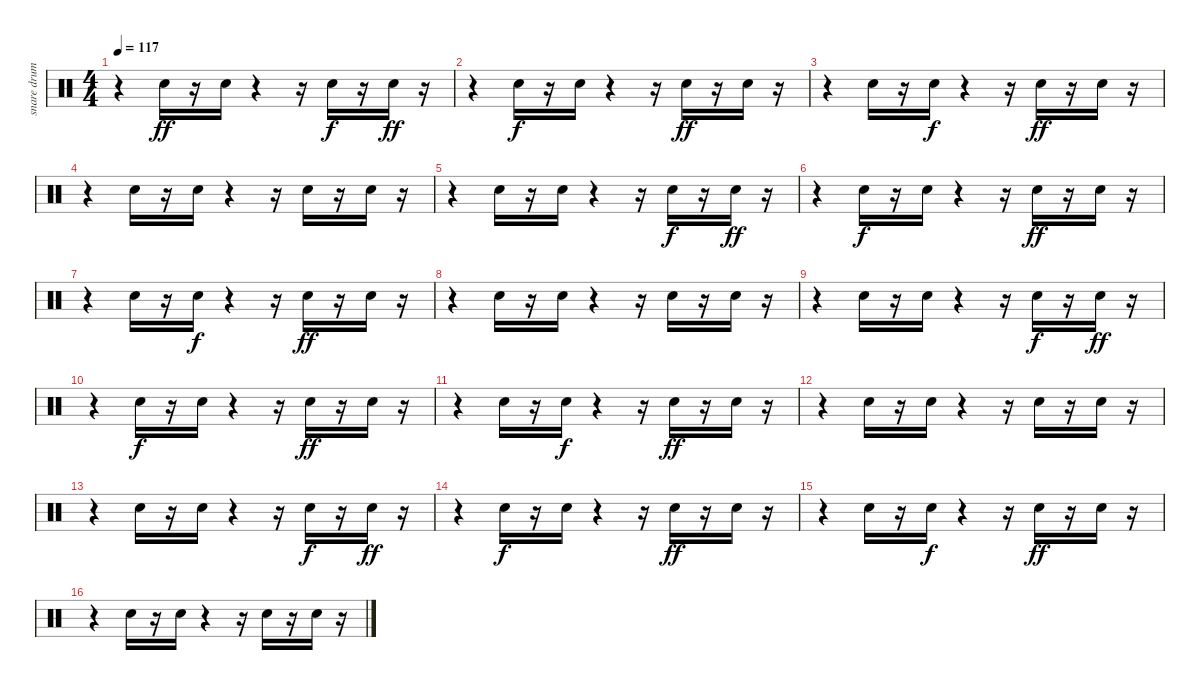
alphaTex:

\track ("snare drum" "snare drum") {instrument percussion}
\staff {score}
\articulation defaults
\ts (4 4)
\tempo 117
\clef neutral
\ks c
r.4{dy ff} "Snare (hit) 2".16 r.16 "Snare (hit) 2".16 r.4 r.16 "Snare (hit) 2".16{dy f} r.16 "Snare (hit) 2".16{dy ff} r.16 |
r.4 "Snare (hit) 2".16{dy f} r.16 "Snare (hit) 2".16 r.4 r.16 "Snare (hit) 2".16{dy ff} r.16 "Snare (hit) 2".16 r.16 |
r.4 "Snare (hit) 2".16 r.16 "Snare (hit) 2".16{dy f} r.4 r.16 "Snare (hit) 2".16{dy ff} r.16 "Snare (hit) 2".16 r.16 |
r.4 "Snare (hit) 2".16 r.16 "Snare (hit) 2".16 r.4 r.16 "Snare (hit) 2".16 r.16 "Snare (hit) 2".16 r.16 |
r.4 "Snare (hit) 2".16 r.16 "Snare (hit) 2".16 r.4 r.16 "Snare (hit) 2".16{dy f} r.16 "Snare (hit) 2".16{dy ff} r.16 |
r.4 "Snare (hit) 2".16{dy f} r.16 "Snare (hit) 2".16 r.4 r.16 "Snare (hit) 2".16{dy ff} r.16 "Snare (hit) 2".16 r.16 |
r.4 "Snare (hit) 2".16 r.16 "Snare (hit) 2".16{dy f} r.4 r.16 "Snare (hit) 2".16{dy ff} r.16 "Snare (hit) 2".16 r.16 |
r.4 "Snare (hit) 2".16 r.16 "Snare (hit) 2".16 r.4 r.16 "Snare (hit) 2".16 r.16 "Snare (hit) 2".16 r.16 |
r.4 "Snare (hit) 2".16 r.16 "Snare (hit) 2".16 r.4 r.16 "Snare (hit) 2".16{dy f} r.16 "Snare (hit) 2".16{dy ff} r.16 |
r.4 "Snare (hit) 2".16{dy f} r.16 "Snare (hit) 2".16 r.4 r.16 "Snare (hit) 2".16{dy ff} r.16 "Snare (hit) 2".16 r.16 |
r.4 "Snare (hit) 2".16 r.16 "Snare (hit) 2".16{dy f} r.4 r.16 "Snare (hit) 2".16{dy ff} r.16 "Snare (hit) 2".16 r.16 |
r.4 "Snare (hit) 2".16 r.16 "Snare (hit) 2".16 r.4 r.16 "Snare (hit) 2".16 r.16 "Snare (hit) 2".16 r.16 |
r.4 "Snare (hit) 2".16 r.16 "Snare (hit) 2".16 r.4 r.16 "Snare (hit) 2".16{dy f} r.16 "Snare (hit) 2".16{dy ff} r.16 |
r.4 "Snare (hit) 2".16{dy f} r.16 "Snare (hit) 2".16 r.4 r.16 "Snare (hit) 2".16{dy ff} r.16 "Snare (hit) 2".16 r.16 |
r.4 "Snare (hit) 2".16 r.16 "Snare (hit) 2".16{dy f} r.4 r.16 "Snare (hit) 2".16{dy ff} r.16 "Snare (hit) 2".16 r.16 |
r.4 "Snare (hit) 2".16 r.16 "Snare (hit) 2".16 r.4 r.16 "Snare (hit) 2".16 r.16 "Snare (hit) 2".16 r.16
